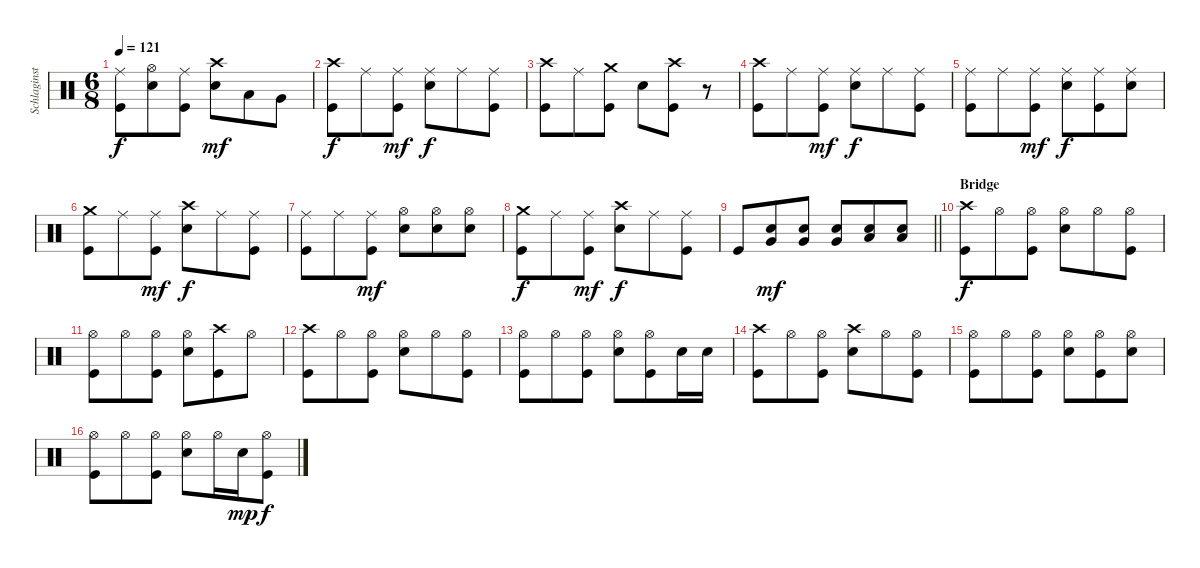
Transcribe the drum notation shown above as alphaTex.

\track ("Schlaginstrumente - Auswahl" "Schlaginst") {instrument percussion}
\staff {score}
\articulation defaults
\ts (6 8)
\tempo 121
\clef neutral
\ks c
("Ride (middle)" "Kick (hit)").8{dy f} ("Snare (hit) 2" "Hi-Hat (open)").8 ("Ride (middle)" "Kick (hit)").8 ("Snare (hit) 2" "Crash high (hit)").8{dy mf} "Low Tom (hit)".8 "Very Low Tom (hit)".8 |
("Crash high (hit)" "Kick (hit)").8{dy f} "Ride (middle)".8 ("Ride (middle)" "Kick (hit)").8{dy mf} ("Ride (middle)" "Snare (hit) 2").8{dy f} "Ride (middle)".8 ("Ride (middle)" "Kick (hit)").8 |
("Kick (hit)" "Crash high (hit)").8 "Ride (middle)".8 ("Crash medium (hit)" "Kick (hit)").8 "Snare (hit) 2".8 ("Crash high (hit)" "Kick (hit)").8 r.8 |
("Crash high (hit)" "Kick (hit)").8 "Ride (middle)".8 ("Ride (middle)" "Kick (hit)").8{dy mf} ("Ride (middle)" "Snare (hit) 2").8{dy f} "Ride (middle)".8 ("Ride (middle)" "Kick (hit)").8 |
("Kick (hit)" "Ride (middle)").8 "Ride (middle)".8 ("Ride (middle)" "Kick (hit)").8{dy mf} ("Ride (middle)" "Snare (hit) 2").8{dy f} ("Kick (hit)" "Ride (middle)").8 ("Snare (hit) 2" "Ride (middle)").8 |
("Crash medium (hit)" "Kick (hit)").8 "Ride (middle)".8 ("Ride (middle)" "Kick (hit)").8{dy mf} ("Crash high (hit)" "Snare (hit) 2").8{dy f} "Ride (middle)".8 ("Ride (middle)" "Kick (hit)").8 |
("Kick (hit)" "Ride (middle)").8 "Ride (middle)".8 ("Ride (middle)" "Kick (hit)").8{dy mf} ("Snare (hit) 2" "Hi-Hat (open)").8 ("Snare (hit) 2" "Hi-Hat (open)").8 ("Snare (hit) 2" "Hi-Hat (open)").8 |
("Crash medium (hit)" "Kick (hit)").8{dy f} "Ride (middle)".8 ("Ride (middle)" "Kick (hit)").8{dy mf} ("Crash high (hit)" "Snare (hit) 2").8{dy f} "Ride (middle)".8 ("Ride (middle)" "Kick (hit)").8 |
\barLineRight lightlight "Kick (hit)".8
("Snare (hit) 2" "Very Low Tom (hit)").8{dy mf} ("Snare (hit) 2" "Very Low Tom (hit)").8 ("Snare (hit) 2" "Very Low Tom (hit)").8 ("Snare (hit) 2" "Low Floor Tom (hit)").8 ("Snare (hit) 2" "Low Floor Tom (hit)").8 |
\section ("" "Bridge")
("Crash high (hit)" "Kick (hit)").8{dy f} "Hi-Hat (open)".8 ("Hi-Hat (open)" "Kick (hit)").8 ("Hi-Hat (open)" "Snare (hit) 2").8 "Hi-Hat (open)".8 ("Hi-Hat (open)" "Kick (hit)").8 |
("Kick (hit)" "Hi-Hat (open)").8 "Hi-Hat (open)".8 ("Hi-Hat (open)" "Kick (hit)").8 ("Hi-Hat (open)" "Snare (hit) 2").8 ("Crash high (hit)" "Kick (hit)").8 "Hi-Hat (open)".8 |
("Crash high (hit)" "Kick (hit)").8 "Hi-Hat (open)".8 ("Hi-Hat (open)" "Kick (hit)").8 ("Hi-Hat (open)" "Snare (hit) 2").8 "Hi-Hat (open)".8 ("Hi-Hat (open)" "Kick (hit)").8 |
("Hi-Hat (open)" "Kick (hit)").8 "Hi-Hat (open)".8 ("Hi-Hat (open)" "Kick (hit)").8 ("Hi-Hat (open)" "Snare (hit) 2").8 ("Hi-Hat (open)" "Kick (hit)").8 "Snare (hit) 2".16 "Snare (hit) 2".16 |
("Crash high (hit)" "Kick (hit)").8 "Hi-Hat (open)".8 ("Hi-Hat (open)" "Kick (hit)").8 ("Crash high (hit)" "Snare (hit) 2").8 "Hi-Hat (open)".8 ("Hi-Hat (open)" "Kick (hit)").8 |
("Hi-Hat (open)" "Kick (hit)").8 "Hi-Hat (open)".8 ("Hi-Hat (open)" "Kick (hit)").8 ("Hi-Hat (open)" "Snare (hit) 2").8 ("Hi-Hat (open)" "Kick (hit)").8 ("Hi-Hat (open)" "Snare (hit) 2").8 |
("Hi-Hat (open)" "Kick (hit)").8 "Hi-Hat (open)".8 ("Hi-Hat (open)" "Kick (hit)").8 ("Hi-Hat (open)" "Snare (hit) 2").8 "Hi-Hat (open)".16 "Snare (hit) 2".16{dy mp} ("Hi-Hat (open)" "Kick (hit)").8{dy f}
